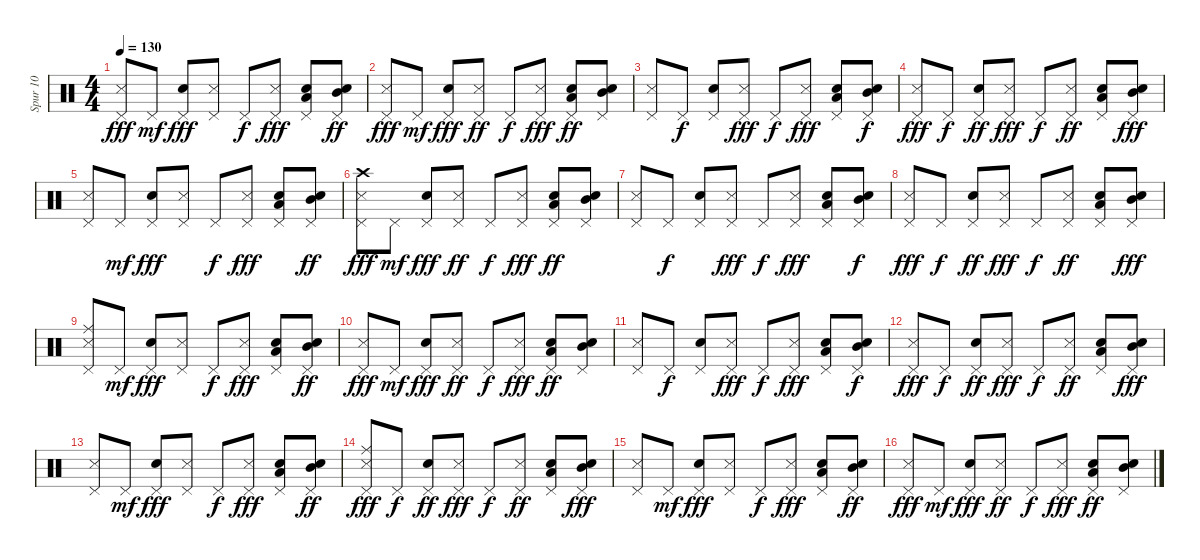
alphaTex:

\track ("Spur 10" "Spur 10") {instrument percussion}
\staff {score}
\articulation defaults
\ts (4 4)
\tempo 130
\clef neutral
\ks c
("Pedal Hi-Hat (hit)" "Metronome (hit)").8{dy fff} "Pedal Hi-Hat (hit)".8{dy mf} ("Pedal Hi-Hat (hit)" "Snare (hit) 2").8{dy fff} ("Pedal Hi-Hat (hit)" "Metronome (hit)").8 "Pedal Hi-Hat (hit)".8{dy f} ("Pedal Hi-Hat (hit)" "Metronome (hit)").8{dy fff} ("Low Tom (hit)" "Pedal Hi-Hat (hit)" "Snare (hit) 2").8 ("Mid Tom (hit)" "Pedal Hi-Hat (hit)" "Snare (hit) 2").8{dy ff} |
("Pedal Hi-Hat (hit)" "Metronome (hit)").8{dy fff} "Pedal Hi-Hat (hit)".8{dy mf} ("Pedal Hi-Hat (hit)" "Snare (hit) 2").8{dy fff} ("Metronome (hit)" "Pedal Hi-Hat (hit)").8{dy ff} "Pedal Hi-Hat (hit)".8{dy f} ("Metronome (hit)" "Pedal Hi-Hat (hit)").8{dy fff} ("Snare (hit) 2" "Low Tom (hit)" "Pedal Hi-Hat (hit)").8{dy ff} ("Snare (hit) 2" "Mid Tom (hit)" "Pedal Hi-Hat (hit)").8 |
("Metronome (hit)" "Pedal Hi-Hat (hit)").8 "Pedal Hi-Hat (hit)".8{dy f} ("Snare (hit) 2" "Pedal Hi-Hat (hit)").8 ("Metronome (hit)" "Pedal Hi-Hat (hit)").8{dy fff} "Pedal Hi-Hat (hit)".8{dy f} ("Metronome (hit)" "Pedal Hi-Hat (hit)").8{dy fff} ("Snare (hit) 2" "Low Tom (hit)" "Pedal Hi-Hat (hit)").8 ("Snare (hit) 2" "Mid Tom (hit)" "Pedal Hi-Hat (hit)").8{dy f} |
("Pedal Hi-Hat (hit)" "Metronome (hit)").8{dy fff} "Pedal Hi-Hat (hit)".8{dy f} ("Snare (hit) 2" "Pedal Hi-Hat (hit)").8{dy ff} ("Metronome (hit)" "Pedal Hi-Hat (hit)").8{dy fff} "Pedal Hi-Hat (hit)".8{dy f} ("Metronome (hit)" "Pedal Hi-Hat (hit)").8{dy ff} ("Low Tom (hit)" "Snare (hit) 2" "Pedal Hi-Hat (hit)").8 ("Mid Tom (hit)" "Snare (hit) 2" "Pedal Hi-Hat (hit)").8{dy fff} |
("Pedal Hi-Hat (hit)" "Metronome (hit)").8 "Pedal Hi-Hat (hit)".8{dy mf} ("Pedal Hi-Hat (hit)" "Snare (hit) 2").8{dy fff} ("Pedal Hi-Hat (hit)" "Metronome (hit)").8 "Pedal Hi-Hat (hit)".8{dy f} ("Pedal Hi-Hat (hit)" "Metronome (hit)").8{dy fff} ("Low Tom (hit)" "Pedal Hi-Hat (hit)" "Snare (hit) 2").8 ("Mid Tom (hit)" "Pedal Hi-Hat (hit)" "Snare (hit) 2").8{dy ff} |
("Crash high (hit)" "Pedal Hi-Hat (hit)" "Metronome (hit)").8{dy fff} "Pedal Hi-Hat (hit)".8{dy mf} ("Pedal Hi-Hat (hit)" "Snare (hit) 2").8{dy fff} ("Metronome (hit)" "Pedal Hi-Hat (hit)").8{dy ff} "Pedal Hi-Hat (hit)".8{dy f} ("Metronome (hit)" "Pedal Hi-Hat (hit)").8{dy fff} ("Snare (hit) 2" "Low Tom (hit)" "Pedal Hi-Hat (hit)").8{dy ff} ("Snare (hit) 2" "Mid Tom (hit)" "Pedal Hi-Hat (hit)").8 |
("Metronome (hit)" "Pedal Hi-Hat (hit)").8 "Pedal Hi-Hat (hit)".8{dy f} ("Snare (hit) 2" "Pedal Hi-Hat (hit)").8 ("Metronome (hit)" "Pedal Hi-Hat (hit)").8{dy fff} "Pedal Hi-Hat (hit)".8{dy f} ("Metronome (hit)" "Pedal Hi-Hat (hit)").8{dy fff} ("Snare (hit) 2" "Low Tom (hit)" "Pedal Hi-Hat (hit)").8 ("Snare (hit) 2" "Mid Tom (hit)" "Pedal Hi-Hat (hit)").8{dy f} |
("Pedal Hi-Hat (hit)" "Metronome (hit)").8{dy fff} "Pedal Hi-Hat (hit)".8{dy f} ("Snare (hit) 2" "Pedal Hi-Hat (hit)").8{dy ff} ("Metronome (hit)" "Pedal Hi-Hat (hit)").8{dy fff} "Pedal Hi-Hat (hit)".8{dy f} ("Metronome (hit)" "Pedal Hi-Hat (hit)").8{dy ff} ("Low Tom (hit)" "Snare (hit) 2" "Pedal Hi-Hat (hit)").8 ("Mid Tom (hit)" "Snare (hit) 2" "Pedal Hi-Hat (hit)").8{dy fff} |
("Ride (middle)" "Pedal Hi-Hat (hit)" "Metronome (hit)").8 "Pedal Hi-Hat (hit)".8{dy mf} ("Pedal Hi-Hat (hit)" "Snare (hit) 2").8{dy fff} ("Pedal Hi-Hat (hit)" "Metronome (hit)").8 "Pedal Hi-Hat (hit)".8{dy f} ("Pedal Hi-Hat (hit)" "Metronome (hit)").8{dy fff} ("Low Tom (hit)" "Pedal Hi-Hat (hit)" "Snare (hit) 2").8 ("Mid Tom (hit)" "Pedal Hi-Hat (hit)" "Snare (hit) 2").8{dy ff} |
("Pedal Hi-Hat (hit)" "Metronome (hit)").8{dy fff} "Pedal Hi-Hat (hit)".8{dy mf} ("Pedal Hi-Hat (hit)" "Snare (hit) 2").8{dy fff} ("Metronome (hit)" "Pedal Hi-Hat (hit)").8{dy ff} "Pedal Hi-Hat (hit)".8{dy f} ("Metronome (hit)" "Pedal Hi-Hat (hit)").8{dy fff} ("Snare (hit) 2" "Low Tom (hit)" "Pedal Hi-Hat (hit)").8{dy ff} ("Snare (hit) 2" "Mid Tom (hit)" "Pedal Hi-Hat (hit)").8 |
("Metronome (hit)" "Pedal Hi-Hat (hit)").8 "Pedal Hi-Hat (hit)".8{dy f} ("Snare (hit) 2" "Pedal Hi-Hat (hit)").8 ("Metronome (hit)" "Pedal Hi-Hat (hit)").8{dy fff} "Pedal Hi-Hat (hit)".8{dy f} ("Metronome (hit)" "Pedal Hi-Hat (hit)").8{dy fff} ("Snare (hit) 2" "Low Tom (hit)" "Pedal Hi-Hat (hit)").8 ("Snare (hit) 2" "Mid Tom (hit)" "Pedal Hi-Hat (hit)").8{dy f} |
("Pedal Hi-Hat (hit)" "Metronome (hit)").8{dy fff} "Pedal Hi-Hat (hit)".8{dy f} ("Snare (hit) 2" "Pedal Hi-Hat (hit)").8{dy ff} ("Metronome (hit)" "Pedal Hi-Hat (hit)").8{dy fff} "Pedal Hi-Hat (hit)".8{dy f} ("Metronome (hit)" "Pedal Hi-Hat (hit)").8{dy ff} ("Low Tom (hit)" "Snare (hit) 2" "Pedal Hi-Hat (hit)").8 ("Mid Tom (hit)" "Snare (hit) 2" "Pedal Hi-Hat (hit)").8{dy fff} |
("Pedal Hi-Hat (hit)" "Metronome (hit)").8 "Pedal Hi-Hat (hit)".8{dy mf} ("Pedal Hi-Hat (hit)" "Snare (hit) 2").8{dy fff} ("Pedal Hi-Hat (hit)" "Metronome (hit)").8 "Pedal Hi-Hat (hit)".8{dy f} ("Pedal Hi-Hat (hit)" "Metronome (hit)").8{dy fff} ("Low Tom (hit)" "Pedal Hi-Hat (hit)" "Snare (hit) 2").8 ("Mid Tom (hit)" "Pedal Hi-Hat (hit)" "Snare (hit) 2").8{dy ff} |
("Ride (middle)" "Pedal Hi-Hat (hit)" "Metronome (hit)").8{dy fff} "Pedal Hi-Hat (hit)".8{dy f} ("Snare (hit) 2" "Pedal Hi-Hat (hit)").8{dy ff} ("Metronome (hit)" "Pedal Hi-Hat (hit)").8{dy fff} "Pedal Hi-Hat (hit)".8{dy f} ("Metronome (hit)" "Pedal Hi-Hat (hit)").8{dy ff} ("Low Tom (hit)" "Snare (hit) 2" "Pedal Hi-Hat (hit)").8 ("Mid Tom (hit)" "Snare (hit) 2" "Pedal Hi-Hat (hit)").8{dy fff} |
("Pedal Hi-Hat (hit)" "Metronome (hit)").8 "Pedal Hi-Hat (hit)".8{dy mf} ("Pedal Hi-Hat (hit)" "Snare (hit) 2").8{dy fff} ("Pedal Hi-Hat (hit)" "Metronome (hit)").8 "Pedal Hi-Hat (hit)".8{dy f} ("Pedal Hi-Hat (hit)" "Metronome (hit)").8{dy fff} ("Low Tom (hit)" "Pedal Hi-Hat (hit)" "Snare (hit) 2").8 ("Mid Tom (hit)" "Pedal Hi-Hat (hit)" "Snare (hit) 2").8{dy ff} |
("Pedal Hi-Hat (hit)" "Metronome (hit)").8{dy fff} "Pedal Hi-Hat (hit)".8{dy mf} ("Pedal Hi-Hat (hit)" "Snare (hit) 2").8{dy fff} ("Metronome (hit)" "Pedal Hi-Hat (hit)").8{dy ff} "Pedal Hi-Hat (hit)".8{dy f} ("Metronome (hit)" "Pedal Hi-Hat (hit)").8{dy fff} ("Snare (hit) 2" "Low Tom (hit)" "Pedal Hi-Hat (hit)").8{dy ff} ("Snare (hit) 2" "Mid Tom (hit)" "Pedal Hi-Hat (hit)").8
